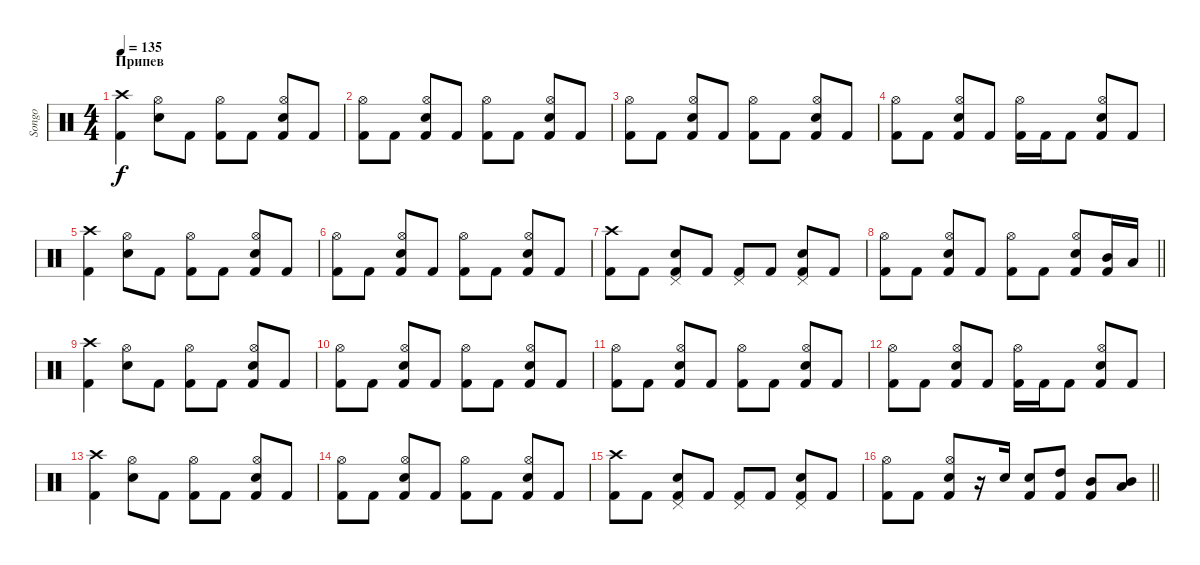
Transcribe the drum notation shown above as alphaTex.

\track ("Songo" "Songo") {instrument percussion}
\staff {score}
\articulation defaults
\ts (4 4)
\section ("" "Припев")
\tempo 135
\clef neutral
\ks c
("Crash high (hit)" "Kick (hit) 2").4{dy f} ("Hi-Hat (open)" "Snare (hit) 2").8 "Kick (hit) 2".8 ("Hi-Hat (open)" "Kick (hit) 2").8 "Kick (hit) 2".8 ("Hi-Hat (open)" "Snare (hit) 2" "Kick (hit) 2").8 "Kick (hit) 2".8 |
("Hi-Hat (open)" "Kick (hit) 2").8 "Kick (hit) 2".8 ("Hi-Hat (open)" "Snare (hit) 2" "Kick (hit) 2").8 "Kick (hit) 2".8 ("Hi-Hat (open)" "Kick (hit) 2").8 "Kick (hit) 2".8 ("Hi-Hat (open)" "Snare (hit) 2" "Kick (hit) 2").8 "Kick (hit) 2".8 |
("Hi-Hat (open)" "Kick (hit) 2").8 "Kick (hit) 2".8 ("Hi-Hat (open)" "Snare (hit) 2" "Kick (hit) 2").8 "Kick (hit) 2".8 ("Hi-Hat (open)" "Kick (hit) 2").8 "Kick (hit) 2".8 ("Hi-Hat (open)" "Snare (hit) 2" "Kick (hit) 2").8 "Kick (hit) 2".8 |
("Hi-Hat (open)" "Kick (hit) 2").8 "Kick (hit) 2".8 ("Hi-Hat (open)" "Snare (hit) 2" "Kick (hit) 2").8 "Kick (hit) 2".8 ("Hi-Hat (open)" "Kick (hit) 2").16 "Kick (hit) 2".16 "Kick (hit) 2".8 ("Hi-Hat (open)" "Snare (hit) 2" "Kick (hit) 2").8 "Kick (hit) 2".8 |
("Crash high (hit)" "Kick (hit) 2").4 ("Hi-Hat (open)" "Snare (hit) 2").8 "Kick (hit) 2".8 ("Hi-Hat (open)" "Kick (hit) 2").8 "Kick (hit) 2".8 ("Hi-Hat (open)" "Snare (hit) 2" "Kick (hit) 2").8 "Kick (hit) 2".8 |
("Hi-Hat (open)" "Kick (hit) 2").8 "Kick (hit) 2".8 ("Hi-Hat (open)" "Snare (hit) 2" "Kick (hit) 2").8 "Kick (hit) 2".8 ("Hi-Hat (open)" "Kick (hit) 2").8 "Kick (hit) 2".8 ("Hi-Hat (open)" "Snare (hit) 2" "Kick (hit) 2").8 "Kick (hit) 2".8 |
("Crash high (hit)" "Kick (hit) 2").8 "Kick (hit) 2".8 ("Pedal Hi-Hat (hit)" "Snare (hit) 2" "Kick (hit) 2").8 "Kick (hit) 2".8 ("Pedal Hi-Hat (hit)" "Kick (hit) 2").8 "Kick (hit) 2".8 ("Pedal Hi-Hat (hit)" "Snare (hit) 2" "Kick (hit) 2").8 "Kick (hit) 2".8 |
\barLineRight lightlight
("Hi-Hat (open)" "Kick (hit) 2").8 "Kick (hit) 2".8 ("Hi-Hat (open)" "Snare (hit) 2" "Kick (hit) 2").8 "Kick (hit) 2".8 ("Hi-Hat (open)" "Kick (hit) 2").8 "Kick (hit) 2".8 ("Hi-Hat (open)" "Snare (hit) 2" "Kick (hit) 2").8 ("Mid Tom (hit)" "Kick (hit) 2").16 "Low Tom (hit)".16 |
("Crash high (hit)" "Kick (hit) 2").4 ("Hi-Hat (open)" "Snare (hit) 2").8 "Kick (hit) 2".8 ("Hi-Hat (open)" "Kick (hit) 2").8 "Kick (hit) 2".8 ("Hi-Hat (open)" "Snare (hit) 2" "Kick (hit) 2").8 "Kick (hit) 2".8 |
("Hi-Hat (open)" "Kick (hit) 2").8 "Kick (hit) 2".8 ("Hi-Hat (open)" "Snare (hit) 2" "Kick (hit) 2").8 "Kick (hit) 2".8 ("Hi-Hat (open)" "Kick (hit) 2").8 "Kick (hit) 2".8 ("Hi-Hat (open)" "Snare (hit) 2" "Kick (hit) 2").8 "Kick (hit) 2".8 |
("Hi-Hat (open)" "Kick (hit) 2").8 "Kick (hit) 2".8 ("Hi-Hat (open)" "Snare (hit) 2" "Kick (hit) 2").8 "Kick (hit) 2".8 ("Hi-Hat (open)" "Kick (hit) 2").8 "Kick (hit) 2".8 ("Hi-Hat (open)" "Snare (hit) 2" "Kick (hit) 2").8 "Kick (hit) 2".8 |
("Hi-Hat (open)" "Kick (hit) 2").8 "Kick (hit) 2".8 ("Hi-Hat (open)" "Snare (hit) 2" "Kick (hit) 2").8 "Kick (hit) 2".8 ("Hi-Hat (open)" "Kick (hit) 2").16 "Kick (hit) 2".16 "Kick (hit) 2".8 ("Hi-Hat (open)" "Snare (hit) 2" "Kick (hit) 2").8 "Kick (hit) 2".8 |
("Crash high (hit)" "Kick (hit) 2").4 ("Hi-Hat (open)" "Snare (hit) 2").8 "Kick (hit) 2".8 ("Hi-Hat (open)" "Kick (hit) 2").8 "Kick (hit) 2".8 ("Hi-Hat (open)" "Snare (hit) 2" "Kick (hit) 2").8 "Kick (hit) 2".8 |
("Hi-Hat (open)" "Kick (hit) 2").8 "Kick (hit) 2".8 ("Hi-Hat (open)" "Snare (hit) 2" "Kick (hit) 2").8 "Kick (hit) 2".8 ("Hi-Hat (open)" "Kick (hit) 2").8 "Kick (hit) 2".8 ("Hi-Hat (open)" "Snare (hit) 2" "Kick (hit) 2").8 "Kick (hit) 2".8 |
("Crash high (hit)" "Kick (hit) 2").8 "Kick (hit) 2".8 ("Pedal Hi-Hat (hit)" "Snare (hit) 2" "Kick (hit) 2").8 "Kick (hit) 2".8 ("Pedal Hi-Hat (hit)" "Kick (hit) 2").8 "Kick (hit) 2".8 ("Pedal Hi-Hat (hit)" "Snare (hit) 2" "Kick (hit) 2").8 "Kick (hit) 2".8 |
\barLineRight lightlight
("Hi-Hat (open)" "Kick (hit) 2").8 "Kick (hit) 2".8 ("Hi-Hat (open)" "Snare (hit) 2" "Kick (hit) 2").8 r.16 "Snare (hit) 2".16 ("Snare (hit) 2" "Kick (hit) 2").8 ("High Tom (hit)" "Kick (hit) 2").8 ("Mid Tom (hit)" "Kick (hit) 2").8 ("Mid Tom (hit)" "Low Tom (hit)").8
